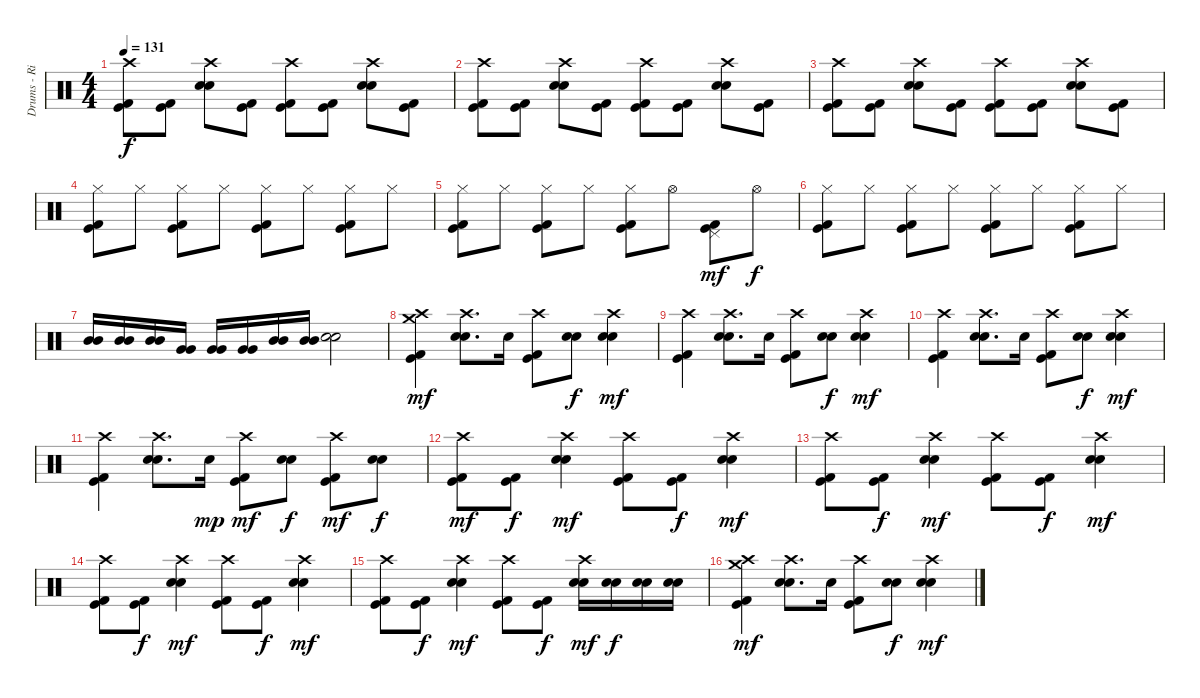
\track ("Drums - Rian" "Drums - Ri") {instrument percussion}
\staff
\articulation defaults
\ts (4 4)
\tempo 131
\clef neutral
\ks c
("Kick (hit) 2" "Kick (hit)" "Crash high (hit)").8{dy f} ("Kick (hit) 2" "Kick (hit)").8 ("Electric Snare (hit)" "Electric Snare (hit)" "Crash high (hit)").8 ("Kick (hit) 2" "Kick (hit)").8 ("Kick (hit) 2" "Kick (hit)" "Crash high (hit)").8 ("Kick (hit) 2" "Kick (hit)").8 ("Electric Snare (hit)" "Electric Snare (hit)" "Crash high (hit)").8 ("Kick (hit) 2" "Kick (hit)").8 |
("Kick (hit) 2" "Kick (hit)" "Crash high (hit)").8 ("Kick (hit) 2" "Kick (hit)").8 ("Electric Snare (hit)" "Electric Snare (hit)" "Crash high (hit)").8 ("Kick (hit) 2" "Kick (hit)").8 ("Kick (hit) 2" "Kick (hit)" "Crash high (hit)").8 ("Kick (hit) 2" "Kick (hit)").8 ("Electric Snare (hit)" "Electric Snare (hit)" "Crash high (hit)").8 ("Kick (hit) 2" "Kick (hit)").8 |
("Kick (hit) 2" "Kick (hit)" "Crash high (hit)").8 ("Kick (hit) 2" "Kick (hit)").8 ("Electric Snare (hit)" "Electric Snare (hit)" "Crash high (hit)").8 ("Kick (hit) 2" "Kick (hit)").8 ("Kick (hit) 2" "Kick (hit)" "Crash high (hit)").8 ("Kick (hit) 2" "Kick (hit)").8 ("Electric Snare (hit)" "Electric Snare (hit)" "Crash high (hit)").8 ("Kick (hit) 2" "Kick (hit)").8 |
("Kick (hit) 2" "Kick (hit)" "Hi-Hat (closed)").8 "Hi-Hat (closed)".8 ("Kick (hit) 2" "Kick (hit)" "Hi-Hat (closed)").8 "Hi-Hat (closed)".8 ("Kick (hit) 2" "Kick (hit)" "Hi-Hat (closed)").8 "Hi-Hat (closed)".8 ("Kick (hit) 2" "Kick (hit)" "Hi-Hat (closed)").8 "Hi-Hat (closed)".8 |
("Kick (hit) 2" "Kick (hit)" "Hi-Hat (closed)").8 "Hi-Hat (closed)".8 ("Kick (hit) 2" "Kick (hit)" "Hi-Hat (closed)").8 "Hi-Hat (closed)".8 ("Kick (hit) 2" "Kick (hit)" "Hi-Hat (closed)").8 "Hi-Hat (open)".8 ("Kick (hit) 2" "Kick (hit)" "Pedal Hi-Hat (hit)").8{dy mf} "Hi-Hat (open)".8{dy f} |
("Kick (hit) 2" "Kick (hit)" "Hi-Hat (closed)").8 "Hi-Hat (closed)".8 ("Kick (hit) 2" "Kick (hit)" "Hi-Hat (closed)").8 "Hi-Hat (closed)".8 ("Kick (hit) 2" "Kick (hit)" "Hi-Hat (closed)").8 "Hi-Hat (closed)".8 ("Kick (hit) 2" "Kick (hit)" "Hi-Hat (closed)").8 "Hi-Hat (closed)".8 |
("Mid Tom (hit)" "Mid Tom (hit)").16 ("Mid Tom (hit)" "Mid Tom (hit)").16 ("Mid Tom (hit)" "Mid Tom (hit)").16 ("Very Low Tom (hit)" "Very Low Tom (hit)").16 ("Very Low Tom (hit)" "Very Low Tom (hit)").16 ("Very Low Tom (hit)" "Very Low Tom (hit)").16 ("Mid Tom (hit)" "Mid Tom (hit)").16 ("Mid Tom (hit)" "Mid Tom (hit)").16 ("Electric Snare (hit)" "Electric Snare (hit)").2 |
("Kick (hit) 2" "Kick (hit)" "Crash high (hit)" "Crash medium (hit)").4{dy mf} ("Electric Snare (hit)" "Electric Snare (hit)" "Crash high (hit)").8{d} "Electric Snare (hit)".16 ("Kick (hit) 2" "Kick (hit)" "Crash high (hit)").8 ("Electric Snare (hit)" "Electric Snare (hit)").8{dy f} ("Electric Snare (hit)" "Electric Snare (hit)" "Crash high (hit)").4{dy mf} |
("Kick (hit) 2" "Kick (hit)" "Crash high (hit)").4 ("Electric Snare (hit)" "Electric Snare (hit)" "Crash high (hit)").8{d} "Electric Snare (hit)".16 ("Kick (hit) 2" "Kick (hit)" "Crash high (hit)").8 ("Electric Snare (hit)" "Electric Snare (hit)").8{dy f} ("Electric Snare (hit)" "Electric Snare (hit)" "Crash high (hit)").4{dy mf} |
("Kick (hit) 2" "Kick (hit)" "Crash high (hit)").4 ("Electric Snare (hit)" "Electric Snare (hit)" "Crash high (hit)").8{d} "Electric Snare (hit)".16 ("Kick (hit) 2" "Kick (hit)" "Crash high (hit)").8 ("Electric Snare (hit)" "Electric Snare (hit)").8{dy f} ("Electric Snare (hit)" "Electric Snare (hit)" "Crash high (hit)").4{dy mf} |
("Kick (hit) 2" "Kick (hit)" "Crash high (hit)").4 ("Electric Snare (hit)" "Electric Snare (hit)" "Crash high (hit)").8{d} "Electric Snare (hit)".16{dy mp} ("Kick (hit) 2" "Kick (hit)" "Crash high (hit)").8{dy mf} ("Electric Snare (hit)" "Electric Snare (hit)").8{dy f} ("Kick (hit) 2" "Kick (hit)" "Crash high (hit)").8{dy mf} ("Electric Snare (hit)" "Electric Snare (hit)").8{dy f} |
("Kick (hit) 2" "Kick (hit)" "Crash high (hit)").8{dy mf} ("Kick (hit) 2" "Kick (hit)").8{dy f} ("Electric Snare (hit)" "Electric Snare (hit)" "Crash high (hit)").4{dy mf} ("Kick (hit) 2" "Kick (hit)" "Crash high (hit)").8 ("Kick (hit) 2" "Kick (hit)").8{dy f} ("Electric Snare (hit)" "Electric Snare (hit)" "Crash high (hit)").4{dy mf} |
("Kick (hit) 2" "Kick (hit)" "Crash high (hit)").8 ("Kick (hit) 2" "Kick (hit)").8{dy f} ("Electric Snare (hit)" "Electric Snare (hit)" "Crash high (hit)").4{dy mf} ("Kick (hit) 2" "Kick (hit)" "Crash high (hit)").8 ("Kick (hit) 2" "Kick (hit)").8{dy f} ("Electric Snare (hit)" "Electric Snare (hit)" "Crash high (hit)").4{dy mf} |
("Kick (hit) 2" "Kick (hit)" "Crash high (hit)").8 ("Kick (hit) 2" "Kick (hit)").8{dy f} ("Electric Snare (hit)" "Electric Snare (hit)" "Crash high (hit)").4{dy mf} ("Kick (hit) 2" "Kick (hit)" "Crash high (hit)").8 ("Kick (hit) 2" "Kick (hit)").8{dy f} ("Electric Snare (hit)" "Electric Snare (hit)" "Crash high (hit)").4{dy mf} |
("Kick (hit) 2" "Kick (hit)" "Crash high (hit)").8 ("Kick (hit) 2" "Kick (hit)").8{dy f} ("Electric Snare (hit)" "Electric Snare (hit)" "Crash high (hit)").4{dy mf} ("Kick (hit) 2" "Kick (hit)" "Crash high (hit)").8 ("Kick (hit) 2" "Kick (hit)").8{dy f} ("Electric Snare (hit)" "Electric Snare (hit)" "Crash high (hit)").16{dy mf} ("Electric Snare (hit)" "Electric Snare (hit)").16{dy f} ("Electric Snare (hit)" "Electric Snare (hit)").16 ("Electric Snare (hit)" "Electric Snare (hit)").16 |
("Kick (hit) 2" "Kick (hit)" "Crash high (hit)" "Crash medium (hit)").4{dy mf} ("Electric Snare (hit)" "Electric Snare (hit)" "Crash high (hit)").8{d} "Electric Snare (hit)".16 ("Kick (hit) 2" "Kick (hit)" "Crash high (hit)").8 ("Electric Snare (hit)" "Electric Snare (hit)").8{dy f} ("Electric Snare (hit)" "Electric Snare (hit)" "Crash high (hit)").4{dy mf}
